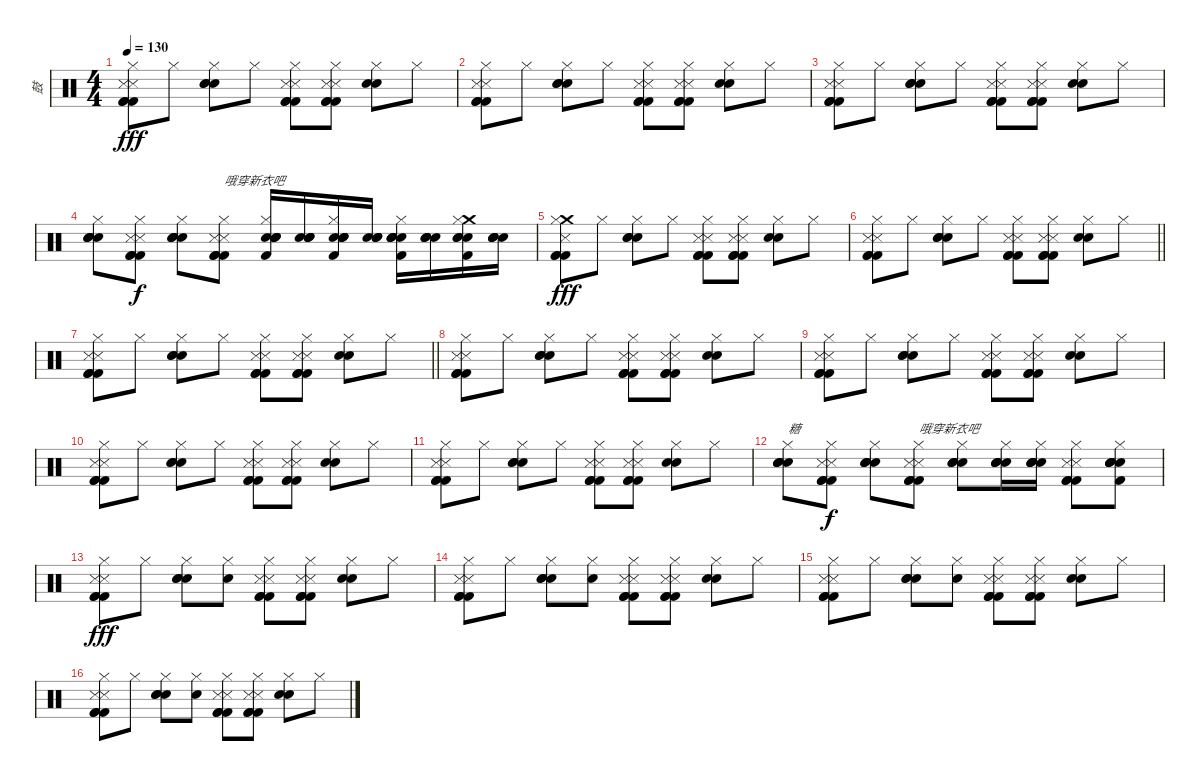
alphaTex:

\track ("鼓" "鼓") {instrument percussion}
\staff {score}
\articulation defaults
\ts (4 4)
\tempo 130
\clef neutral
\ks c
("Metronome (hit)" "Metronome (hit)" "Kick (hit) 2" "Kick (hit) 2" "Kick (hit) 2" "Hi-Hat (closed)").8{dy fff} "Hi-Hat (closed)".8 ("Electric Snare (hit)" "Electric Snare (hit)" "Electric Snare (hit)" "Hi-Hat (closed)").8 "Hi-Hat (closed)".8 ("Metronome (hit)" "Metronome (hit)" "Kick (hit) 2" "Kick (hit) 2" "Kick (hit) 2" "Hi-Hat (closed)").8 ("Metronome (hit)" "Metronome (hit)" "Kick (hit) 2" "Kick (hit) 2" "Kick (hit) 2" "Hi-Hat (closed)").8 ("Electric Snare (hit)" "Electric Snare (hit)" "Hi-Hat (closed)").8 "Hi-Hat (closed)".8 |
("Metronome (hit)" "Metronome (hit)" "Kick (hit) 2" "Kick (hit) 2" "Kick (hit) 2" "Hi-Hat (closed)").8 "Hi-Hat (closed)".8 ("Electric Snare (hit)" "Electric Snare (hit)" "Electric Snare (hit)" "Hi-Hat (closed)").8 "Hi-Hat (closed)".8 ("Metronome (hit)" "Metronome (hit)" "Kick (hit) 2" "Kick (hit) 2" "Kick (hit) 2" "Hi-Hat (closed)").8 ("Metronome (hit)" "Metronome (hit)" "Kick (hit) 2" "Kick (hit) 2" "Kick (hit) 2" "Hi-Hat (closed)").8 ("Electric Snare (hit)" "Electric Snare (hit)" "Hi-Hat (closed)").8 "Hi-Hat (closed)".8 |
("Metronome (hit)" "Metronome (hit)" "Kick (hit) 2" "Kick (hit) 2" "Kick (hit) 2" "Hi-Hat (closed)").8 "Hi-Hat (closed)".8 ("Electric Snare (hit)" "Electric Snare (hit)" "Electric Snare (hit)" "Hi-Hat (closed)").8 "Hi-Hat (closed)".8 ("Metronome (hit)" "Metronome (hit)" "Kick (hit) 2" "Kick (hit) 2" "Kick (hit) 2" "Hi-Hat (closed)").8 ("Metronome (hit)" "Metronome (hit)" "Kick (hit) 2" "Kick (hit) 2" "Kick (hit) 2" "Hi-Hat (closed)").8 ("Electric Snare (hit)" "Electric Snare (hit)" "Hi-Hat (closed)").8 "Hi-Hat (closed)".8 |
("Hand Clap (hit)" "Snare (hit) 2" "Snare (hit) 2" "Snare (hit) 2" "Hi-Hat (closed)").8 ("Metronome (hit)" "Metronome (hit)" "Kick (hit) 2" "Kick (hit) 2" "Kick (hit) 2" "Hi-Hat (closed)").8{dy f} ("Hand Clap (hit)" "Snare (hit) 2" "Snare (hit) 2" "Snare (hit) 2" "Hi-Hat (closed)").8 ("Metronome (hit)" "Metronome (hit)" "Kick (hit) 2" "Kick (hit) 2" "Kick (hit) 2" "Hi-Hat (closed)").8{txt "哦穿新衣吧"} ("Hand Clap (hit)" "Snare (hit) 2" "Snare (hit) 2" "Snare (hit) 2" "Kick (hit) 2" "Hi-Hat (closed)").16{volume 7} ("Hand Clap (hit)" "Snare (hit) 2" "Snare (hit) 2" "Snare (hit) 2").16{volume 8} ("Hand Clap (hit)" "Snare (hit) 2" "Snare (hit) 2" "Snare (hit) 2" "Kick (hit) 2" "Hi-Hat (closed)").16{volume 9} ("Hand Clap (hit)" "Snare (hit) 2" "Snare (hit) 2" "Snare (hit) 2").16{volume 10} ("Hand Clap (hit)" "Snare (hit) 2" "Snare (hit) 2" "Snare (hit) 2" "Kick (hit) 2" "Hi-Hat (closed)").16{volume 11} ("Hand Clap (hit)" "Snare (hit) 2" "Snare (hit) 2" "Snare (hit) 2").16{volume 12} ("Hand Clap (hit)" "Snare (hit) 2" "Snare (hit) 2" "Crash medium (hit)" "Kick (hit) 2" "Hi-Hat (closed)").16{volume 13} ("Hand Clap (hit)" "Snare (hit) 2" "Snare (hit) 2" "Snare (hit) 2").16{volume 14} |
("Metronome (hit)" "Crash medium (hit)" "Kick (hit) 2" "Kick (hit) 2" "Kick (hit) 2" "Hi-Hat (closed)").8{dy fff volume 16} "Hi-Hat (closed)".8{volume 11} ("Electric Snare (hit)" "Electric Snare (hit)" "Electric Snare (hit)" "Hi-Hat (closed)").8 "Hi-Hat (closed)".8 ("Metronome (hit)" "Metronome (hit)" "Kick (hit) 2" "Kick (hit) 2" "Kick (hit) 2" "Hi-Hat (closed)").8 ("Metronome (hit)" "Metronome (hit)" "Kick (hit) 2" "Kick (hit) 2" "Kick (hit) 2" "Hi-Hat (closed)").8 ("Electric Snare (hit)" "Electric Snare (hit)" "Hi-Hat (closed)").8 "Hi-Hat (closed)".8 |
\barLineRight lightlight
("Metronome (hit)" "Metronome (hit)" "Kick (hit) 2" "Kick (hit) 2" "Kick (hit) 2" "Hi-Hat (closed)").8 "Hi-Hat (closed)".8 ("Electric Snare (hit)" "Electric Snare (hit)" "Electric Snare (hit)" "Hi-Hat (closed)").8 "Hi-Hat (closed)".8 ("Metronome (hit)" "Metronome (hit)" "Kick (hit) 2" "Kick (hit) 2" "Kick (hit) 2" "Hi-Hat (closed)").8 ("Metronome (hit)" "Metronome (hit)" "Kick (hit) 2" "Kick (hit) 2" "Kick (hit) 2" "Hi-Hat (closed)").8 ("Electric Snare (hit)" "Electric Snare (hit)" "Hi-Hat (closed)").8 "Hi-Hat (closed)".8 |
\section ("" "")
\barLineRight lightlight
("Metronome (hit)" "Metronome (hit)" "Kick (hit) 2" "Kick (hit) 2" "Kick (hit) 2" "Hi-Hat (closed)").8 "Hi-Hat (closed)".8 ("Electric Snare (hit)" "Electric Snare (hit)" "Electric Snare (hit)" "Hi-Hat (closed)").8 "Hi-Hat (closed)".8 ("Metronome (hit)" "Metronome (hit)" "Kick (hit) 2" "Kick (hit) 2" "Kick (hit) 2" "Hi-Hat (closed)").8 ("Metronome (hit)" "Metronome (hit)" "Kick (hit) 2" "Kick (hit) 2" "Kick (hit) 2" "Hi-Hat (closed)").8 ("Electric Snare (hit)" "Electric Snare (hit)" "Hi-Hat (closed)").8 "Hi-Hat (closed)".8 |
\section ("" "")
("Metronome (hit)" "Metronome (hit)" "Kick (hit) 2" "Kick (hit) 2" "Kick (hit) 2" "Hi-Hat (closed)").8 "Hi-Hat (closed)".8 ("Electric Snare (hit)" "Electric Snare (hit)" "Electric Snare (hit)" "Hi-Hat (closed)").8 "Hi-Hat (closed)".8 ("Metronome (hit)" "Metronome (hit)" "Kick (hit) 2" "Kick (hit) 2" "Kick (hit) 2" "Hi-Hat (closed)").8 ("Metronome (hit)" "Metronome (hit)" "Kick (hit) 2" "Kick (hit) 2" "Kick (hit) 2" "Hi-Hat (closed)").8 ("Electric Snare (hit)" "Electric Snare (hit)" "Hi-Hat (closed)").8 "Hi-Hat (closed)".8 |
("Metronome (hit)" "Metronome (hit)" "Kick (hit) 2" "Kick (hit) 2" "Kick (hit) 2" "Hi-Hat (closed)").8 "Hi-Hat (closed)".8 ("Electric Snare (hit)" "Electric Snare (hit)" "Electric Snare (hit)" "Hi-Hat (closed)").8 "Hi-Hat (closed)".8 ("Metronome (hit)" "Metronome (hit)" "Kick (hit) 2" "Kick (hit) 2" "Kick (hit) 2" "Hi-Hat (closed)").8 ("Metronome (hit)" "Metronome (hit)" "Kick (hit) 2" "Kick (hit) 2" "Kick (hit) 2" "Hi-Hat (closed)").8 ("Electric Snare (hit)" "Electric Snare (hit)" "Hi-Hat (closed)").8 "Hi-Hat (closed)".8 |
("Metronome (hit)" "Metronome (hit)" "Kick (hit) 2" "Kick (hit) 2" "Kick (hit) 2" "Hi-Hat (closed)").8 "Hi-Hat (closed)".8 ("Electric Snare (hit)" "Electric Snare (hit)" "Electric Snare (hit)" "Hi-Hat (closed)").8 "Hi-Hat (closed)".8 ("Metronome (hit)" "Metronome (hit)" "Kick (hit) 2" "Kick (hit) 2" "Kick (hit) 2" "Hi-Hat (closed)").8 ("Metronome (hit)" "Metronome (hit)" "Kick (hit) 2" "Kick (hit) 2" "Kick (hit) 2" "Hi-Hat (closed)").8 ("Electric Snare (hit)" "Electric Snare (hit)" "Hi-Hat (closed)").8 "Hi-Hat (closed)".8 |
("Metronome (hit)" "Metronome (hit)" "Kick (hit) 2" "Kick (hit) 2" "Kick (hit) 2" "Hi-Hat (closed)").8 "Hi-Hat (closed)".8 ("Electric Snare (hit)" "Electric Snare (hit)" "Electric Snare (hit)" "Hi-Hat (closed)").8 "Hi-Hat (closed)".8 ("Metronome (hit)" "Metronome (hit)" "Kick (hit) 2" "Kick (hit) 2" "Kick (hit) 2" "Hi-Hat (closed)").8 ("Metronome (hit)" "Metronome (hit)" "Kick (hit) 2" "Kick (hit) 2" "Kick (hit) 2" "Hi-Hat (closed)").8 ("Electric Snare (hit)" "Electric Snare (hit)" "Hi-Hat (closed)").8 "Hi-Hat (closed)".8 |
("Hand Clap (hit)" "Snare (hit) 2" "Snare (hit) 2" "Snare (hit) 2" "Hi-Hat (closed)").8{txt "糖"} ("Metronome (hit)" "Metronome (hit)" "Kick (hit) 2" "Kick (hit) 2" "Kick (hit) 2" "Hi-Hat (closed)").8{dy f} ("Hand Clap (hit)" "Snare (hit) 2" "Snare (hit) 2" "Snare (hit) 2" "Hi-Hat (closed)").8 ("Metronome (hit)" "Metronome (hit)" "Kick (hit) 2" "Kick (hit) 2" "Kick (hit) 2" "Hi-Hat (closed)").8{txt "哦穿新衣吧"} ("Hand Clap (hit)" "Snare (hit) 2" "Snare (hit) 2" "Snare (hit) 2" "Hi-Hat (closed)").8 ("Hand Clap (hit)" "Snare (hit) 2" "Snare (hit) 2" "Snare (hit) 2" "Hi-Hat (closed)").16 ("Hand Clap (hit)" "Snare (hit) 2" "Snare (hit) 2" "Snare (hit) 2" "Hi-Hat (closed)").16 ("Metronome (hit)" "Metronome (hit)" "Kick (hit) 2" "Kick (hit) 2" "Kick (hit) 2" "Hi-Hat (closed)").8 ("Hand Clap (hit)" "Snare (hit) 2" "Snare (hit) 2" "Snare (hit) 2" "Kick (hit) 2" "Hi-Hat (closed)").8 |
("Metronome (hit)" "Metronome (hit)" "Kick (hit) 2" "Kick (hit) 2" "Kick (hit) 2" "Hi-Hat (closed)").8{dy fff} "Hi-Hat (closed)".8 ("Electric Snare (hit)" "Electric Snare (hit)" "Electric Snare (hit)" "Hi-Hat (closed)").8 ("Hand Clap (hit)" "Hi-Hat (closed)").8 ("Metronome (hit)" "Metronome (hit)" "Kick (hit) 2" "Kick (hit) 2" "Kick (hit) 2" "Hi-Hat (closed)").8 ("Metronome (hit)" "Metronome (hit)" "Kick (hit) 2" "Kick (hit) 2" "Kick (hit) 2" "Hi-Hat (closed)").8 ("Electric Snare (hit)" "Electric Snare (hit)" "Hi-Hat (closed)").8 "Hi-Hat (closed)".8 |
("Metronome (hit)" "Metronome (hit)" "Kick (hit) 2" "Kick (hit) 2" "Kick (hit) 2" "Hi-Hat (closed)").8 "Hi-Hat (closed)".8 ("Electric Snare (hit)" "Electric Snare (hit)" "Electric Snare (hit)" "Hi-Hat (closed)").8 ("Hand Clap (hit)" "Hi-Hat (closed)").8 ("Metronome (hit)" "Metronome (hit)" "Kick (hit) 2" "Kick (hit) 2" "Kick (hit) 2" "Hi-Hat (closed)").8 ("Metronome (hit)" "Metronome (hit)" "Kick (hit) 2" "Kick (hit) 2" "Kick (hit) 2" "Hi-Hat (closed)").8 ("Electric Snare (hit)" "Electric Snare (hit)" "Hi-Hat (closed)").8 "Hi-Hat (closed)".8 |
("Metronome (hit)" "Metronome (hit)" "Kick (hit) 2" "Kick (hit) 2" "Kick (hit) 2" "Hi-Hat (closed)").8 "Hi-Hat (closed)".8 ("Electric Snare (hit)" "Electric Snare (hit)" "Electric Snare (hit)" "Hi-Hat (closed)").8 ("Hand Clap (hit)" "Hi-Hat (closed)").8 ("Metronome (hit)" "Metronome (hit)" "Kick (hit) 2" "Kick (hit) 2" "Kick (hit) 2" "Hi-Hat (closed)").8 ("Metronome (hit)" "Metronome (hit)" "Kick (hit) 2" "Kick (hit) 2" "Kick (hit) 2" "Hi-Hat (closed)").8 ("Electric Snare (hit)" "Electric Snare (hit)" "Hi-Hat (closed)").8 "Hi-Hat (closed)".8 |
("Metronome (hit)" "Metronome (hit)" "Kick (hit) 2" "Kick (hit) 2" "Kick (hit) 2" "Hi-Hat (closed)").8 "Hi-Hat (closed)".8 ("Electric Snare (hit)" "Electric Snare (hit)" "Electric Snare (hit)" "Hi-Hat (closed)").8 ("Hand Clap (hit)" "Hi-Hat (closed)").8 ("Metronome (hit)" "Metronome (hit)" "Kick (hit) 2" "Kick (hit) 2" "Kick (hit) 2" "Hi-Hat (closed)").8 ("Metronome (hit)" "Metronome (hit)" "Kick (hit) 2" "Kick (hit) 2" "Kick (hit) 2" "Hi-Hat (closed)").8 ("Electric Snare (hit)" "Electric Snare (hit)" "Hi-Hat (closed)").8 "Hi-Hat (closed)".8
